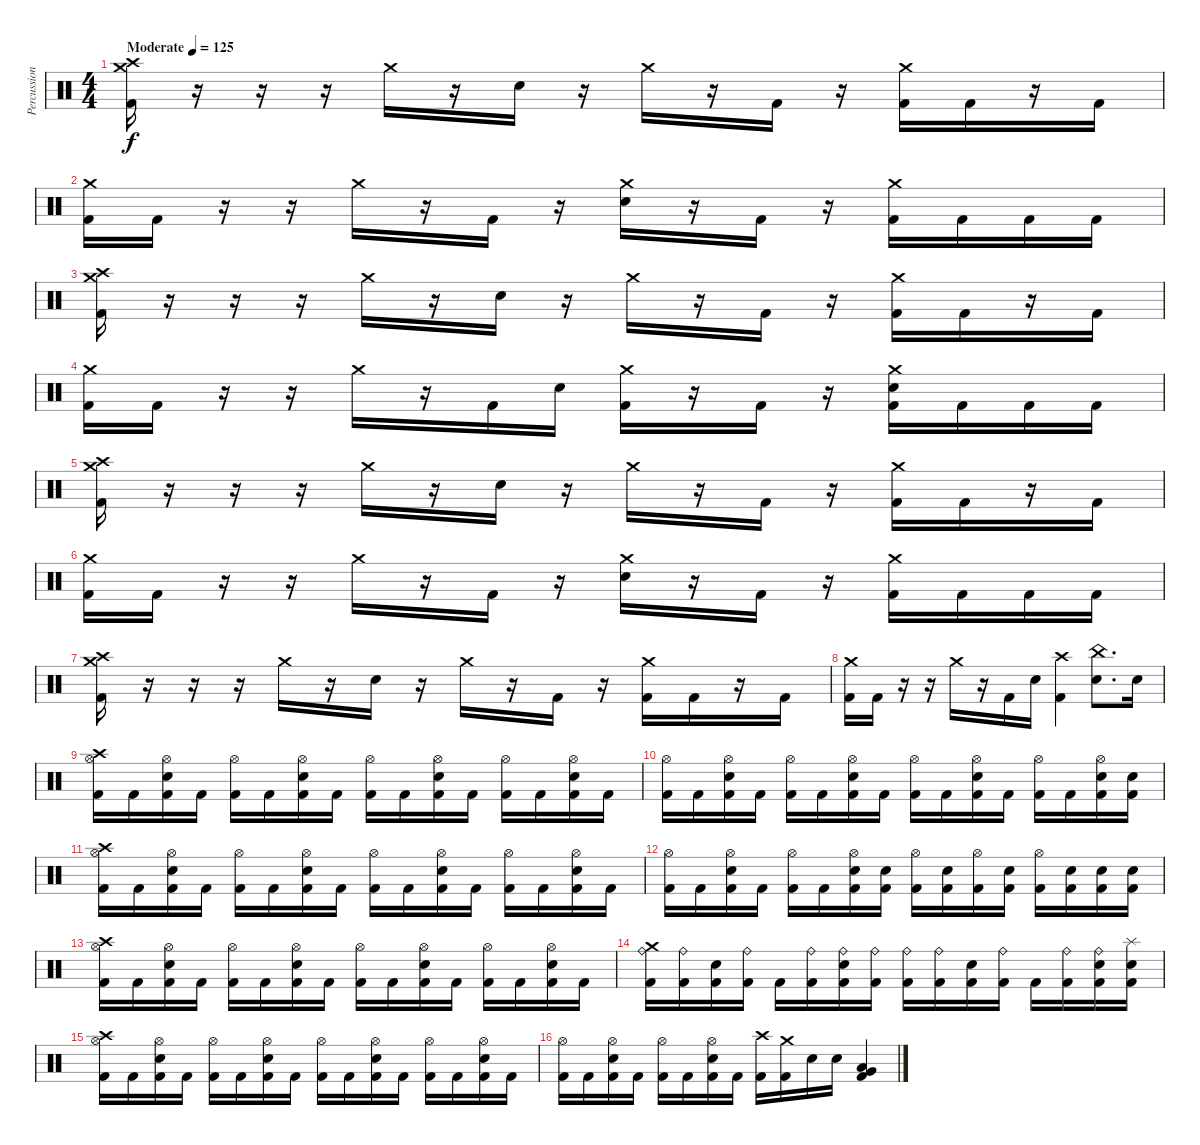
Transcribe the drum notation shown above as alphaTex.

\track ("Percussion" "Percussion") {instrument percussion}
\staff {score}
\articulation defaults
\ts (4 4)
\tempo (125 "Moderate")
\clef neutral
\ks c
("Crash high (hit)" "Crash medium (hit)" "Kick (hit) 2").16{dy f} r.16 r.16 r.16 "Crash medium (hit)".16 r.16 "Electric Snare (hit)".16 r.16 "Crash medium (hit)".16 r.16 "Kick (hit) 2".16 r.16 ("Crash medium (hit)" "Kick (hit) 2").16 "Kick (hit) 2".16 r.16 "Kick (hit) 2".16 |
("Crash medium (hit)" "Kick (hit) 2").16 "Kick (hit) 2".16 r.16 r.16 "Crash medium (hit)".16 r.16 "Kick (hit) 2".16 r.16 ("Crash medium (hit)" "Electric Snare (hit)").16 r.16 "Kick (hit) 2".16 r.16 ("Crash medium (hit)" "Kick (hit) 2").16 "Kick (hit) 2".16 "Kick (hit) 2".16 "Kick (hit) 2".16 |
("Crash high (hit)" "Crash medium (hit)" "Kick (hit) 2").16 r.16 r.16 r.16 "Crash medium (hit)".16 r.16 "Electric Snare (hit)".16 r.16 "Crash medium (hit)".16 r.16 "Kick (hit) 2".16 r.16 ("Crash medium (hit)" "Kick (hit) 2").16 "Kick (hit) 2".16 r.16 "Kick (hit) 2".16 |
("Crash medium (hit)" "Kick (hit) 2").16 "Kick (hit) 2".16 r.16 r.16 "Crash medium (hit)".16 r.16 "Kick (hit) 2".16 "Electric Snare (hit)".16 ("Crash medium (hit)" "Kick (hit) 2").16 r.16 "Kick (hit) 2".16 r.16 ("Crash medium (hit)" "Electric Snare (hit)" "Kick (hit) 2").16 "Kick (hit) 2".16 "Kick (hit) 2".16 "Kick (hit) 2".16 |
("Crash high (hit)" "Crash medium (hit)" "Kick (hit) 2").16 r.16 r.16 r.16 "Crash medium (hit)".16 r.16 "Electric Snare (hit)".16 r.16 "Crash medium (hit)".16 r.16 "Kick (hit) 2".16 r.16 ("Crash medium (hit)" "Kick (hit) 2").16 "Kick (hit) 2".16 r.16 "Kick (hit) 2".16 |
("Crash medium (hit)" "Kick (hit) 2").16 "Kick (hit) 2".16 r.16 r.16 "Crash medium (hit)".16 r.16 "Kick (hit) 2".16 r.16 ("Crash medium (hit)" "Electric Snare (hit)").16 r.16 "Kick (hit) 2".16 r.16 ("Crash medium (hit)" "Kick (hit) 2").16 "Kick (hit) 2".16 "Kick (hit) 2".16 "Kick (hit) 2".16 |
("Crash high (hit)" "Crash medium (hit)" "Kick (hit) 2").16 r.16 r.16 r.16 "Crash medium (hit)".16 r.16 "Electric Snare (hit)".16 r.16 "Crash medium (hit)".16 r.16 "Kick (hit) 2".16 r.16 ("Crash medium (hit)" "Kick (hit) 2").16 "Kick (hit) 2".16 r.16 "Kick (hit) 2".16 |
("Crash medium (hit)" "Kick (hit) 2").16 "Kick (hit) 2".16 r.16 r.16 "Crash medium (hit)".16 r.16 "Kick (hit) 2".16 "Electric Snare (hit)".16 ("Crash high (hit)" "Kick (hit) 2").4 ("China (hit)" "Electric Snare (hit)").8{d} "Electric Snare (hit)".16 |
("Crash high (hit)" "Hi-Hat (open)" "Kick (hit) 2").16 "Kick (hit) 2".16 ("Hi-Hat (open)" "Electric Snare (hit)" "Kick (hit) 2").16 "Kick (hit) 2".16 ("Hi-Hat (open)" "Kick (hit) 2").16 "Kick (hit) 2".16 ("Hi-Hat (open)" "Electric Snare (hit)" "Kick (hit) 2").16 "Kick (hit) 2".16 ("Hi-Hat (open)" "Kick (hit) 2").16 "Kick (hit) 2".16 ("Hi-Hat (open)" "Electric Snare (hit)" "Kick (hit) 2").16 "Kick (hit) 2".16 ("Hi-Hat (open)" "Kick (hit) 2").16 "Kick (hit) 2".16 ("Hi-Hat (open)" "Electric Snare (hit)" "Kick (hit) 2").16 "Kick (hit) 2".16 |
("Hi-Hat (open)" "Kick (hit) 2").16 "Kick (hit) 2".16 ("Hi-Hat (open)" "Electric Snare (hit)" "Kick (hit) 2").16 "Kick (hit) 2".16 ("Hi-Hat (open)" "Kick (hit) 2").16 "Kick (hit) 2".16 ("Hi-Hat (open)" "Electric Snare (hit)" "Kick (hit) 2").16 "Kick (hit) 2".16 ("Hi-Hat (open)" "Kick (hit) 2").16 "Kick (hit) 2".16 ("Hi-Hat (open)" "Electric Snare (hit)" "Kick (hit) 2").16 "Kick (hit) 2".16 ("Hi-Hat (open)" "Kick (hit) 2").16 "Kick (hit) 2".16 ("Hi-Hat (open)" "Electric Snare (hit)" "Kick (hit) 2").16 ("Electric Snare (hit)" "Kick (hit) 2").16 |
("Crash high (hit)" "Hi-Hat (open)" "Kick (hit) 2").16 "Kick (hit) 2".16 ("Hi-Hat (open)" "Electric Snare (hit)" "Kick (hit) 2").16 "Kick (hit) 2".16 ("Hi-Hat (open)" "Kick (hit) 2").16 "Kick (hit) 2".16 ("Hi-Hat (open)" "Electric Snare (hit)" "Kick (hit) 2").16 "Kick (hit) 2".16 ("Hi-Hat (open)" "Kick (hit) 2").16 "Kick (hit) 2".16 ("Hi-Hat (open)" "Electric Snare (hit)" "Kick (hit) 2").16 "Kick (hit) 2".16 ("Hi-Hat (open)" "Kick (hit) 2").16 "Kick (hit) 2".16 ("Hi-Hat (open)" "Electric Snare (hit)" "Kick (hit) 2").16 "Kick (hit) 2".16 |
("Hi-Hat (open)" "Kick (hit) 2").16 "Kick (hit) 2".16 ("Hi-Hat (open)" "Electric Snare (hit)" "Kick (hit) 2").16 "Kick (hit) 2".16 ("Hi-Hat (open)" "Kick (hit) 2").16 "Kick (hit) 2".16 ("Hi-Hat (open)" "Electric Snare (hit)" "Kick (hit) 2").16 ("Electric Snare (hit)" "Kick (hit) 2").16 ("Hi-Hat (open)" "Kick (hit) 2").16 ("Electric Snare (hit)" "Kick (hit) 2").16 ("Hi-Hat (open)" "Kick (hit) 2").16 ("Electric Snare (hit)" "Kick (hit) 2").16 ("Hi-Hat (open)" "Kick (hit) 2").16 ("Electric Snare (hit)" "Kick (hit) 2").16 ("Electric Snare (hit)" "Kick (hit) 2").16 ("Electric Snare (hit)" "Kick (hit) 2").16 |
("Crash high (hit)" "Hi-Hat (open)" "Kick (hit) 2").16 "Kick (hit) 2".16 ("Hi-Hat (open)" "Electric Snare (hit)" "Kick (hit) 2").16 "Kick (hit) 2".16 ("Hi-Hat (open)" "Kick (hit) 2").16 "Kick (hit) 2".16 ("Hi-Hat (open)" "Electric Snare (hit)" "Kick (hit) 2").16 "Kick (hit) 2".16 ("Hi-Hat (open)" "Kick (hit) 2").16 "Kick (hit) 2".16 ("Hi-Hat (open)" "Electric Snare (hit)" "Kick (hit) 2").16 "Kick (hit) 2".16 ("Hi-Hat (open)" "Kick (hit) 2").16 "Kick (hit) 2".16 ("Hi-Hat (open)" "Electric Snare (hit)" "Kick (hit) 2").16 "Kick (hit) 2".16 |
("Crash medium (hit)" "Ride (bell)" "Kick (hit) 2").16 ("Ride (bell)" "Kick (hit) 2").16 ("Electric Snare (hit)" "Kick (hit) 2").16 ("Ride (bell)" "Kick (hit) 2").16 "Kick (hit) 2".16 ("Ride (bell)" "Kick (hit) 2").16 ("Ride (bell)" "Electric Snare (hit)" "Kick (hit) 2").16 ("Ride (bell)" "Kick (hit) 2").16 ("Ride (bell)" "Kick (hit) 2").16 ("Ride (bell)" "Kick (hit) 2").16 ("Electric Snare (hit)" "Kick (hit) 2").16 ("Ride (bell)" "Kick (hit) 2").16 "Kick (hit) 2".16 ("Ride (bell)" "Kick (hit) 2").16 ("Ride (bell)" "Electric Snare (hit)" "Kick (hit) 2").16 ("Splash (hit)" "Electric Snare (hit)" "Kick (hit) 2").16 |
("Crash high (hit)" "Hi-Hat (open)" "Kick (hit) 2").16 "Kick (hit) 2".16 ("Hi-Hat (open)" "Electric Snare (hit)" "Kick (hit) 2").16 "Kick (hit) 2".16 ("Hi-Hat (open)" "Kick (hit) 2").16 "Kick (hit) 2".16 ("Hi-Hat (open)" "Electric Snare (hit)" "Kick (hit) 2").16 "Kick (hit) 2".16 ("Hi-Hat (open)" "Kick (hit) 2").16 "Kick (hit) 2".16 ("Hi-Hat (open)" "Electric Snare (hit)" "Kick (hit) 2").16 "Kick (hit) 2".16 ("Hi-Hat (open)" "Kick (hit) 2").16 "Kick (hit) 2".16 ("Hi-Hat (open)" "Electric Snare (hit)" "Kick (hit) 2").16 "Kick (hit) 2".16 |
("Hi-Hat (open)" "Kick (hit) 2").16 "Kick (hit) 2".16 ("Hi-Hat (open)" "Electric Snare (hit)" "Kick (hit) 2").16 "Kick (hit) 2".16 ("Hi-Hat (open)" "Kick (hit) 2").16 "Kick (hit) 2".16 ("Hi-Hat (open)" "Electric Snare (hit)" "Kick (hit) 2").16 "Kick (hit) 2".16 ("Crash high (hit)" "Kick (hit) 2").16 ("Crash medium (hit)" "Kick (hit) 2").16 "Electric Snare (hit)".16 "Electric Snare (hit)".16 ("Very Low Tom (hit)" "Low Floor Tom (hit)" "Kick (hit) 2").4
